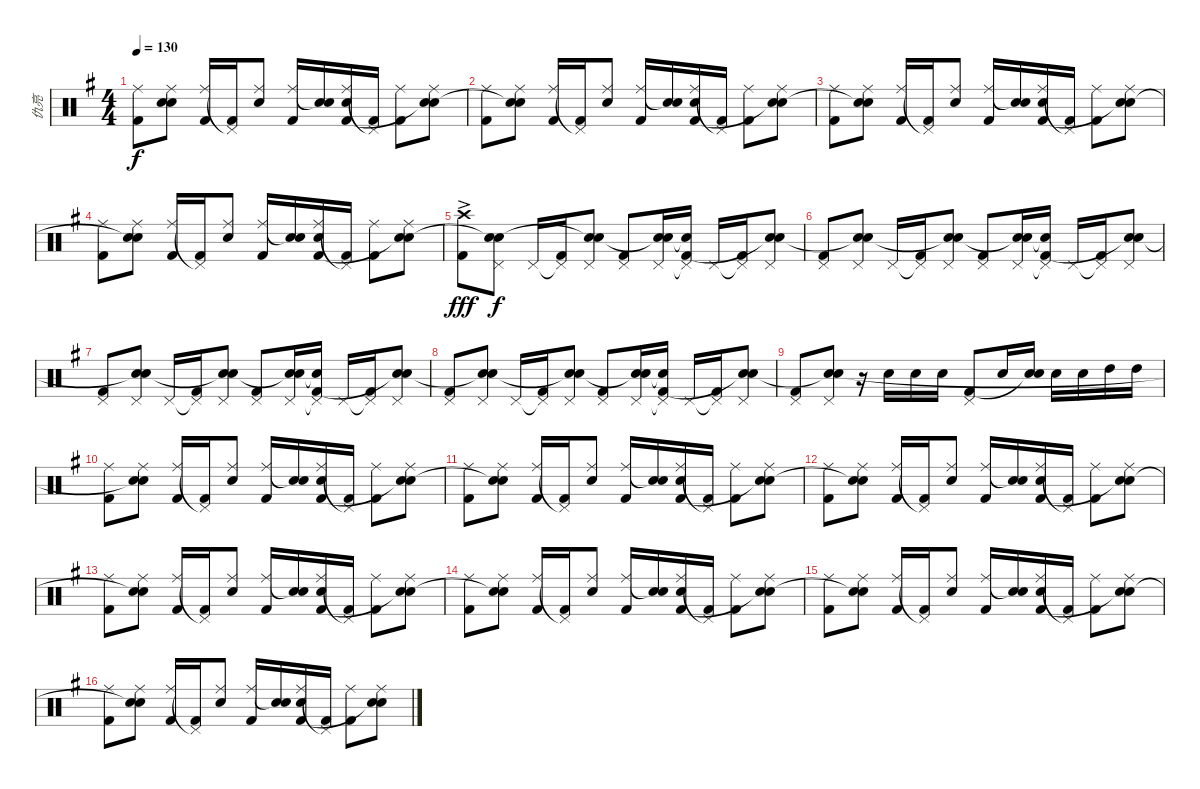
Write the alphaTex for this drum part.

\track ("仇亮" "仇亮") {instrument percussion}
\staff {score}
\articulation defaults
\ts (4 4)
\tempo 130
\clef neutral
\ks g
("Ride (middle)" "Kick (hit) 2").8{dy f} ("Ride (middle)" "Snare (hit) 2" "Snare (hit)"{t}).8 ("Ride (middle)" "Kick (hit) 2").16 ("Pedal Hi-Hat (hit)"{t} "Kick (hit) 2").16 ("Ride (middle)" "Snare (hit) 2").8 ("Ride (middle)" "Kick (hit) 2").16 ("Snare (hit)"{t} "Snare (hit)").16 ("Ride (middle)" "Snare (hit) 2" "Kick (hit) 2").16 ("Pedal Hi-Hat (hit)"{t} "Kick (hit) 2").16 ("Ride (middle)" "Kick (hit) 2").8 ("Ride (middle)" "Snare (hit) 2" "Snare (hit)"{t}).8 |
("Ride (middle)" "Kick (hit) 2").8 ("Ride (middle)" "Snare (hit) 2" "Snare (hit)"{t}).8 ("Ride (middle)" "Kick (hit) 2").16 ("Pedal Hi-Hat (hit)"{t} "Kick (hit) 2").16 ("Ride (middle)" "Snare (hit) 2").8 ("Ride (middle)" "Kick (hit) 2").16 ("Snare (hit)"{t} "Snare (hit)").16 ("Ride (middle)" "Snare (hit) 2" "Kick (hit) 2").16 ("Pedal Hi-Hat (hit)"{t} "Kick (hit) 2").16 ("Ride (middle)" "Kick (hit) 2").8 ("Ride (middle)" "Snare (hit) 2" "Snare (hit)"{t}).8 |
("Ride (middle)" "Kick (hit) 2").8 ("Ride (middle)" "Snare (hit) 2" "Snare (hit)"{t}).8 ("Ride (middle)" "Kick (hit) 2").16 ("Pedal Hi-Hat (hit)"{t} "Kick (hit) 2").16 ("Ride (middle)" "Snare (hit) 2").8 ("Ride (middle)" "Kick (hit) 2").16 ("Snare (hit)"{t} "Snare (hit)").16 ("Ride (middle)" "Snare (hit) 2" "Kick (hit) 2").16 ("Pedal Hi-Hat (hit)"{t} "Kick (hit) 2").16 ("Ride (middle)" "Kick (hit) 2").8 ("Ride (middle)" "Snare (hit) 2" "Snare (hit)"{t}).8 |
("Ride (middle)" "Kick (hit) 2").8 ("Ride (middle)" "Snare (hit) 2" "Snare (hit)"{t}).8 ("Ride (middle)" "Kick (hit) 2").16 ("Pedal Hi-Hat (hit)"{t} "Kick (hit) 2").16 ("Ride (middle)" "Snare (hit) 2").8 ("Ride (middle)" "Kick (hit) 2").16 ("Snare (hit)"{t} "Snare (hit)").16 ("Ride (middle)" "Snare (hit) 2" "Kick (hit) 2").16 ("Pedal Hi-Hat (hit)"{t} "Kick (hit) 2").16 ("Ride (middle)" "Kick (hit) 2").8 ("Ride (middle)" "Snare (hit) 2" "Snare (hit)"{t}).8 |
("Crash high (hit)"{ac} "Kick (hit) 2"{ac}).8{dy fff} ("Pedal Hi-Hat (hit)" "Snare (hit) 2" "Snare (hit)"{t}).8{dy f} "Pedal Hi-Hat (hit)".16 ("Pedal Hi-Hat (hit)"{t} "Kick (hit) 2").16 ("Pedal Hi-Hat (hit)" "Snare (hit) 2" "Snare (hit)"{t}).8 ("Pedal Hi-Hat (hit)" "Kick (hit) 2").8 ("Pedal Hi-Hat (hit)" "Snare (hit) 2" "Snare (hit)"{t}).16 ("Pedal Hi-Hat (hit)"{t} "Snare (hit) 2"{t} "Kick (hit) 2").16 "Pedal Hi-Hat (hit)".16 ("Pedal Hi-Hat (hit)"{t} "Kick (hit) 2").16 ("Pedal Hi-Hat (hit)" "Snare (hit) 2" "Snare (hit)"{t}).8 |
("Pedal Hi-Hat (hit)" "Kick (hit) 2").8 ("Pedal Hi-Hat (hit)" "Snare (hit) 2" "Snare (hit)"{t}).8 "Pedal Hi-Hat (hit)".16 ("Pedal Hi-Hat (hit)"{t} "Kick (hit) 2").16 ("Pedal Hi-Hat (hit)" "Snare (hit) 2" "Snare (hit)"{t}).8 ("Pedal Hi-Hat (hit)" "Kick (hit) 2").8 ("Pedal Hi-Hat (hit)" "Snare (hit) 2" "Snare (hit)"{t}).16 ("Pedal Hi-Hat (hit)"{t} "Snare (hit)"{t} "Kick (hit) 2").16 "Pedal Hi-Hat (hit)".16 ("Pedal Hi-Hat (hit)"{t} "Kick (hit) 2").16 ("Pedal Hi-Hat (hit)" "Snare (hit) 2" "Snare (hit)"{t}).8 |
("Pedal Hi-Hat (hit)" "Kick (hit) 2").8 ("Pedal Hi-Hat (hit)" "Snare (hit) 2" "Snare (hit)"{t}).8 "Pedal Hi-Hat (hit)".16 ("Pedal Hi-Hat (hit)"{t} "Kick (hit) 2").16 ("Pedal Hi-Hat (hit)" "Snare (hit) 2" "Snare (hit)"{t}).8 ("Pedal Hi-Hat (hit)" "Kick (hit) 2").8 ("Pedal Hi-Hat (hit)" "Snare (hit) 2" "Snare (hit)"{t}).16 ("Pedal Hi-Hat (hit)"{t} "Snare (hit)"{t} "Kick (hit) 2").16 "Pedal Hi-Hat (hit)".16 ("Pedal Hi-Hat (hit)"{t} "Kick (hit) 2").16 ("Pedal Hi-Hat (hit)" "Snare (hit) 2" "Snare (hit)"{t}).8 |
("Pedal Hi-Hat (hit)" "Kick (hit) 2").8 ("Pedal Hi-Hat (hit)" "Snare (hit) 2" "Snare (hit)"{t}).8 "Pedal Hi-Hat (hit)".16 ("Pedal Hi-Hat (hit)"{t} "Kick (hit) 2").16 ("Pedal Hi-Hat (hit)" "Snare (hit) 2" "Snare (hit)"{t}).8 ("Pedal Hi-Hat (hit)" "Kick (hit) 2").8 ("Pedal Hi-Hat (hit)" "Snare (hit) 2" "Snare (hit)"{t}).16 ("Pedal Hi-Hat (hit)"{t} "Snare (hit)"{t} "Kick (hit) 2").16 "Pedal Hi-Hat (hit)".16 ("Pedal Hi-Hat (hit)"{t} "Kick (hit) 2").16 ("Pedal Hi-Hat (hit)" "Snare (hit) 2" "Snare (hit)"{t}).8 |
("Pedal Hi-Hat (hit)" "Kick (hit) 2").8 ("Pedal Hi-Hat (hit)" "Snare (hit) 2" "Snare (hit)"{t}).8 r.16 "Snare (hit) 2".16 "Snare (hit) 2".16 "Snare (hit) 2".16 ("Pedal Hi-Hat (hit)" "Kick (hit) 2").8 "Snare (hit) 2".16 ("Snare (hit) 2" "Snare (hit)"{t}).16 "Snare (hit) 2".16 "Snare (hit) 2".16 "High Tom (hit)".16 "High Tom (hit)".16 |
("Ride (middle)" "Kick (hit) 2").8 ("Ride (middle)" "Snare (hit) 2" "Snare (hit)"{t}).8 ("Ride (middle)" "Kick (hit) 2").16 ("Pedal Hi-Hat (hit)"{t} "Kick (hit) 2").16 ("Ride (middle)" "Snare (hit) 2").8 ("Ride (middle)" "Kick (hit) 2").16 ("Snare (hit)"{t} "Snare (hit)").16 ("Ride (middle)" "Snare (hit) 2" "Kick (hit) 2").16 ("Pedal Hi-Hat (hit)"{t} "Kick (hit) 2").16 ("Ride (middle)" "Kick (hit) 2").8 ("Ride (middle)" "Snare (hit) 2" "Snare (hit)"{t}).8 |
("Ride (middle)" "Kick (hit) 2").8 ("Ride (middle)" "Snare (hit) 2" "Snare (hit)"{t}).8 ("Ride (middle)" "Kick (hit) 2").16 ("Pedal Hi-Hat (hit)"{t} "Kick (hit) 2").16 ("Ride (middle)" "Snare (hit) 2").8 ("Ride (middle)" "Kick (hit) 2").16 ("Snare (hit)"{t} "Snare (hit)").16 ("Ride (middle)" "Snare (hit) 2" "Kick (hit) 2").16 ("Pedal Hi-Hat (hit)"{t} "Kick (hit) 2").16 ("Ride (middle)" "Kick (hit) 2").8 ("Ride (middle)" "Snare (hit) 2" "Snare (hit)"{t}).8 |
("Ride (middle)" "Kick (hit) 2").8 ("Ride (middle)" "Snare (hit) 2" "Snare (hit)"{t}).8 ("Ride (middle)" "Kick (hit) 2").16 ("Pedal Hi-Hat (hit)"{t} "Kick (hit) 2").16 ("Ride (middle)" "Snare (hit) 2").8 ("Ride (middle)" "Kick (hit) 2").16 ("Snare (hit)"{t} "Snare (hit)").16 ("Ride (middle)" "Snare (hit) 2" "Kick (hit) 2").16 ("Pedal Hi-Hat (hit)"{t} "Kick (hit) 2").16 ("Ride (middle)" "Kick (hit) 2").8 ("Ride (middle)" "Snare (hit) 2" "Snare (hit)"{t}).8 |
("Ride (middle)" "Kick (hit) 2").8 ("Ride (middle)" "Snare (hit) 2" "Snare (hit)"{t}).8 ("Ride (middle)" "Kick (hit) 2").16 ("Pedal Hi-Hat (hit)"{t} "Kick (hit) 2").16 ("Ride (middle)" "Snare (hit) 2").8 ("Ride (middle)" "Kick (hit) 2").16 ("Snare (hit)"{t} "Snare (hit)").16 ("Ride (middle)" "Snare (hit) 2" "Kick (hit) 2").16 ("Pedal Hi-Hat (hit)"{t} "Kick (hit) 2").16 ("Ride (middle)" "Kick (hit) 2").8 ("Ride (middle)" "Snare (hit) 2" "Snare (hit)"{t}).8 |
("Ride (middle)" "Kick (hit) 2").8 ("Ride (middle)" "Snare (hit) 2" "Snare (hit)"{t}).8 ("Ride (middle)" "Kick (hit) 2").16 ("Pedal Hi-Hat (hit)"{t} "Kick (hit) 2").16 ("Ride (middle)" "Snare (hit) 2").8 ("Ride (middle)" "Kick (hit) 2").16 ("Snare (hit)"{t} "Snare (hit)").16 ("Ride (middle)" "Snare (hit) 2" "Kick (hit) 2").16 ("Pedal Hi-Hat (hit)"{t} "Kick (hit) 2").16 ("Ride (middle)" "Kick (hit) 2").8 ("Ride (middle)" "Snare (hit) 2" "Snare (hit)"{t}).8 |
("Ride (middle)" "Kick (hit) 2").8 ("Ride (middle)" "Snare (hit) 2" "Snare (hit)"{t}).8 ("Ride (middle)" "Kick (hit) 2").16 ("Pedal Hi-Hat (hit)"{t} "Kick (hit) 2").16 ("Ride (middle)" "Snare (hit) 2").8 ("Ride (middle)" "Kick (hit) 2").16 ("Snare (hit)"{t} "Snare (hit)").16 ("Ride (middle)" "Snare (hit) 2" "Kick (hit) 2").16 ("Pedal Hi-Hat (hit)"{t} "Kick (hit) 2").16 ("Ride (middle)" "Kick (hit) 2").8 ("Ride (middle)" "Snare (hit) 2" "Snare (hit)"{t}).8 |
("Ride (middle)" "Kick (hit) 2").8 ("Ride (middle)" "Snare (hit) 2" "Snare (hit)"{t}).8 ("Ride (middle)" "Kick (hit) 2").16 ("Pedal Hi-Hat (hit)"{t} "Kick (hit) 2").16 ("Ride (middle)" "Snare (hit) 2").8 ("Ride (middle)" "Kick (hit) 2").16 ("Snare (hit)"{t} "Snare (hit)").16 ("Ride (middle)" "Snare (hit) 2" "Kick (hit) 2").16 ("Pedal Hi-Hat (hit)"{t} "Kick (hit) 2").16 ("Ride (middle)" "Kick (hit) 2").8 ("Ride (middle)" "Snare (hit) 2" "Snare (hit)"{t}).8
